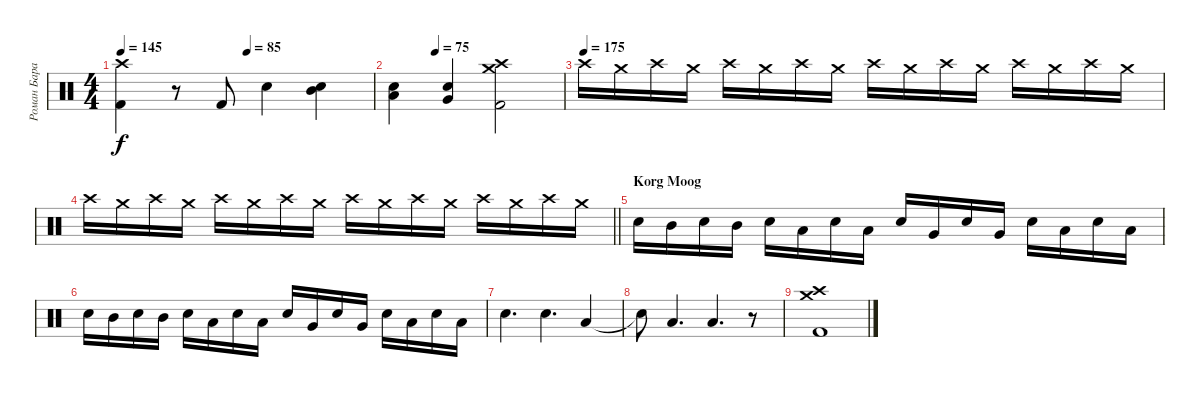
\track ("Роман Баранюк" "Роман Бара") {instrument percussion}
\staff {score}
\articulation defaults
\ts (4 4)
\tempo 80
\tempo (75 0.5)
\tempo 145
\tempo (85 0.5)
\clef neutral
\ks c
("Crash high (hit)" "Kick (hit) 2").4{dy f} r.8 "Kick (hit) 2".8 "Snare (hit) 2".4 ("Mid Tom (hit)" "Snare (hit) 2").4 |
\tempo (65 0.25)
\tempo (75 0.25)
("Low Tom (hit)" "Snare (hit) 2").4 ("Snare (hit) 2" "Very Low Tom (hit)").4 ("Crash high (hit)" "Crash medium (hit)" "Kick (hit) 2").2 |
\tempo (175)
"Crash high (hit)".16 "Crash medium (hit)".16 "Crash high (hit)".16 "Crash medium (hit)".16 "Crash high (hit)".16 "Crash medium (hit)".16 "Crash high (hit)".16 "Crash medium (hit)".16 "Crash high (hit)".16 "Crash medium (hit)".16 "Crash high (hit)".16 "Crash medium (hit)".16 "Crash high (hit)".16 "Crash medium (hit)".16 "Crash high (hit)".16 "Crash medium (hit)".16 |
\barLineRight lightlight "Crash high (hit)".16 "Crash medium (hit)".16 "Crash high (hit)".16 "Crash medium (hit)".16 "Crash high (hit)".16 "Crash medium (hit)".16 "Crash high (hit)".16 "Crash medium (hit)".16 "Crash high (hit)".16 "Crash medium (hit)".16 "Crash high (hit)".16 "Crash medium (hit)".16 "Crash high (hit)".16 "Crash medium (hit)".16 "Crash high (hit)".16 "Crash medium (hit)".16
|
\section ("" "Korg Moog")
"Snare (hit) 2".16 "Mid Tom (hit)".16 "Snare (hit) 2".16 "Mid Tom (hit)".16 "Snare (hit) 2".16 "Low Tom (hit)".16 "Snare (hit) 2".16 "Low Tom (hit)".16 "Snare (hit) 2".16 "Very Low Tom (hit)".16 "Snare (hit) 2".16 "Very Low Tom (hit)".16 "Snare (hit) 2".16 "Low Floor Tom (hit)".16 "Snare (hit) 2".16 "Low Floor Tom (hit)".16 |
"Snare (hit) 2".16 "Mid Tom (hit)".16 "Snare (hit) 2".16 "Mid Tom (hit)".16 "Snare (hit) 2".16 "Low Tom (hit)".16 "Snare (hit) 2".16 "Low Tom (hit)".16 "Snare (hit) 2".16 "Very Low Tom (hit)".16 "Snare (hit) 2".16 "Very Low Tom (hit)".16 "Snare (hit) 2".16 "Low Floor Tom (hit)".16 "Snare (hit) 2".16 "Low Floor Tom (hit)".16 |
"Snare (hit) 2".4{d} "Snare (hit) 2".4{d} "Low Tom (hit)".4 |
"Snare (hit)"{t}.8 "Low Tom (hit)".4{d} "Low Tom (hit)".4{d} r.8 |
("Crash high (hit)" "Crash medium (hit)" "Kick (hit) 2").1
